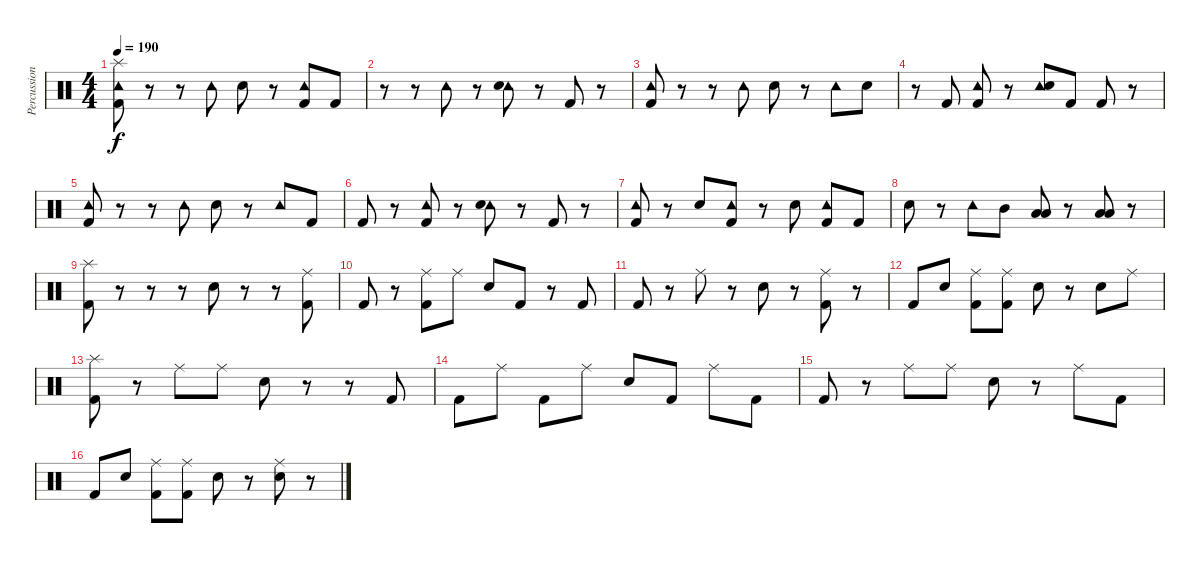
\track ("Percussion" "Percussion") {instrument percussion}
\staff {score}
\articulation defaults
\ts (4 4)
\tempo 190
\clef neutral
\ks c
("Splash (hit)" "Tambourine (hit)" "Kick (hit) 2").8{dy f} r.8 r.8 "Tambourine (hit)".8 "Electric Snare (hit)".8 r.8 ("Tambourine (hit)" "Kick (hit) 2").8 "Kick (hit) 2".8 |
r.8 r.8 "Tambourine (hit)".8 r.8 ("Tambourine (hit)" "Electric Snare (hit)").8 r.8 "Kick (hit) 2".8 r.8 |
("Tambourine (hit)" "Kick (hit) 2").8 r.8 r.8 "Tambourine (hit)".8 "Electric Snare (hit)".8 r.8 "Tambourine (hit)".8 "Electric Snare (hit)".8 |
r.8 "Kick (hit) 2".8 ("Tambourine (hit)" "Kick (hit) 2").8 r.8 ("Tambourine (hit)" "Electric Snare (hit)").8 "Kick (hit) 2".8 "Kick (hit) 2".8 r.8 |
("Tambourine (hit)" "Kick (hit) 2").8 r.8 r.8 "Tambourine (hit)".8 "Electric Snare (hit)".8 r.8 "Tambourine (hit)".8 "Kick (hit) 2".8 |
"Kick (hit) 2".8 r.8 ("Tambourine (hit)" "Kick (hit) 2").8 r.8 ("Tambourine (hit)" "Electric Snare (hit)").8 r.8 "Kick (hit) 2".8 r.8 |
("Tambourine (hit)" "Kick (hit) 2").8 r.8 "Electric Snare (hit)".8 ("Tambourine (hit)" "Kick (hit) 2").8 r.8 "Electric Snare (hit)".8 ("Tambourine (hit)" "Kick (hit) 2").8 "Kick (hit) 2".8 |
"Electric Snare (hit)".8 r.8 "Tambourine (hit)".8 "Mid Tom (hit)".8 ("Low Floor Tom (hit)" "Low Tom (hit)").8 r.8 ("Low Floor Tom (hit)" "Low Tom (hit)").8{bd 480} r.8 |
("Splash (hit)" "Kick (hit) 2").8 r.8 r.8 r.8 "Electric Snare (hit)".8 r.8 r.8 ("Ride (middle)" "Kick (hit) 2").8 |
"Kick (hit) 2".8 r.8 ("Ride (middle)" "Kick (hit) 2").8 "Ride (middle)".8 "Electric Snare (hit)".8 "Kick (hit) 2".8 r.8 "Kick (hit) 2".8 |
"Kick (hit) 2".8 r.8 "Ride (middle)".8 r.8 "Electric Snare (hit)".8 r.8 ("Ride (middle)" "Kick (hit) 2").8 r.8 |
"Kick (hit) 2".8 "Electric Snare (hit)".8 ("Ride (middle)" "Kick (hit) 2").8 ("Ride (middle)" "Kick (hit) 2").8 "Electric Snare (hit)".8 r.8 "Electric Snare (hit)".8 "Ride (middle)".8 |
("Splash (hit)" "Kick (hit) 2").8 r.8 "Ride (middle)".8 "Ride (middle)".8 "Electric Snare (hit)".8 r.8 r.8 "Kick (hit) 2".8 |
"Kick (hit) 2".8 "Ride (middle)".8 "Kick (hit) 2".8 "Ride (middle)".8 "Electric Snare (hit)".8 "Kick (hit) 2".8 "Ride (middle)".8 "Kick (hit) 2".8 |
"Kick (hit) 2".8 r.8 "Ride (middle)".8 "Ride (middle)".8 "Electric Snare (hit)".8 r.8 "Ride (middle)".8 "Kick (hit) 2".8 |
"Kick (hit) 2".8 "Electric Snare (hit)".8 ("Ride (middle)" "Kick (hit) 2").8 ("Ride (middle)" "Kick (hit) 2").8 "Electric Snare (hit)".8 r.8 ("Ride (middle)" "Electric Snare (hit)").8 r.8
